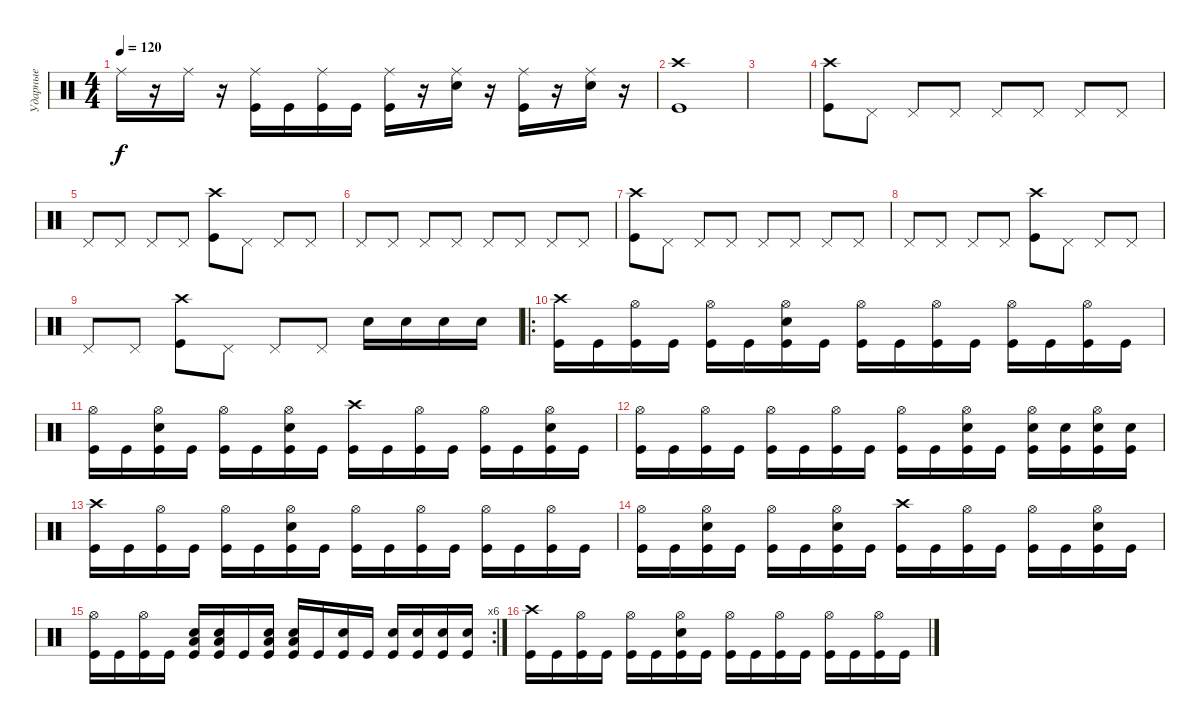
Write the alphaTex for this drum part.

\track ("Ударные" "Ударные") {instrument percussion}
\staff {score}
\articulation defaults
\ts (4 4)
\tempo 120
\clef neutral
\ks c "Ride (middle)".16{dy f}
r.16 "Ride (middle)".16 r.16 ("Ride (middle)" "Kick (hit)").16 "Kick (hit)".16 ("Ride (middle)" "Kick (hit)").16 "Kick (hit)".16 ("Ride (middle)" "Kick (hit)").16 r.16 ("Ride (middle)" "Snare (hit) 2").16 r.16 ("Ride (middle)" "Kick (hit)").16 r.16 ("Ride (middle)" "Snare (hit) 2").16 r.16 |
("Crash high (hit)" "Kick (hit)").1 |
|
("Crash high (hit)" "Kick (hit)").8 "Pedal Hi-Hat (hit)".8 "Pedal Hi-Hat (hit)".8 "Pedal Hi-Hat (hit)".8 "Pedal Hi-Hat (hit)".8 "Pedal Hi-Hat (hit)".8 "Pedal Hi-Hat (hit)".8 "Pedal Hi-Hat (hit)".8 |
"Pedal Hi-Hat (hit)".8 "Pedal Hi-Hat (hit)".8 "Pedal Hi-Hat (hit)".8 "Pedal Hi-Hat (hit)".8 ("Crash high (hit)" "Kick (hit)").8 "Pedal Hi-Hat (hit)".8 "Pedal Hi-Hat (hit)".8 "Pedal Hi-Hat (hit)".8 |
"Pedal Hi-Hat (hit)".8 "Pedal Hi-Hat (hit)".8 "Pedal Hi-Hat (hit)".8 "Pedal Hi-Hat (hit)".8 "Pedal Hi-Hat (hit)".8 "Pedal Hi-Hat (hit)".8 "Pedal Hi-Hat (hit)".8 "Pedal Hi-Hat (hit)".8 |
("Crash high (hit)" "Kick (hit)").8 "Pedal Hi-Hat (hit)".8 "Pedal Hi-Hat (hit)".8 "Pedal Hi-Hat (hit)".8 "Pedal Hi-Hat (hit)".8 "Pedal Hi-Hat (hit)".8 "Pedal Hi-Hat (hit)".8 "Pedal Hi-Hat (hit)".8 |
"Pedal Hi-Hat (hit)".8 "Pedal Hi-Hat (hit)".8 "Pedal Hi-Hat (hit)".8 "Pedal Hi-Hat (hit)".8 ("Crash high (hit)" "Kick (hit)").8 "Pedal Hi-Hat (hit)".8 "Pedal Hi-Hat (hit)".8 "Pedal Hi-Hat (hit)".8 |
"Pedal Hi-Hat (hit)".8 "Pedal Hi-Hat (hit)".8 ("Crash high (hit)" "Kick (hit)").8 "Pedal Hi-Hat (hit)".8 "Pedal Hi-Hat (hit)".8 "Pedal Hi-Hat (hit)".8 "Snare (hit) 2".16 "Snare (hit) 2".16 "Snare (hit) 2".16 "Snare (hit) 2".16 |
\ro
("Crash high (hit)" "Kick (hit)").16 "Kick (hit)".16 ("Hi-Hat (open)" "Kick (hit)").16 "Kick (hit)".16 ("Hi-Hat (open)" "Kick (hit)").16 "Kick (hit)".16 ("Hi-Hat (open)" "Snare (hit) 2" "Kick (hit)").16 "Kick (hit)".16 ("Hi-Hat (open)" "Kick (hit)").16 "Kick (hit)".16 ("Hi-Hat (open)" "Kick (hit)").16 "Kick (hit)".16 ("Hi-Hat (open)" "Kick (hit)").16 "Kick (hit)".16 ("Hi-Hat (open)" "Kick (hit)").16 "Kick (hit)".16 |
("Hi-Hat (open)" "Kick (hit)").16 "Kick (hit)".16 ("Hi-Hat (open)" "Snare (hit) 2" "Kick (hit)").16 "Kick (hit)".16 ("Hi-Hat (open)" "Kick (hit)").16 "Kick (hit)".16 ("Hi-Hat (open)" "Snare (hit) 2" "Kick (hit)").16 "Kick (hit)".16 ("Crash high (hit)" "Kick (hit)").16 "Kick (hit)".16 ("Hi-Hat (open)" "Kick (hit)").16 "Kick (hit)".16 ("Hi-Hat (open)" "Kick (hit)").16 "Kick (hit)".16 ("Hi-Hat (open)" "Snare (hit) 2" "Kick (hit)").16 "Kick (hit)".16 |
("Hi-Hat (open)" "Kick (hit)").16 "Kick (hit)".16 ("Hi-Hat (open)" "Kick (hit)").16 "Kick (hit)".16 ("Hi-Hat (open)" "Kick (hit)").16 "Kick (hit)".16 ("Hi-Hat (open)" "Kick (hit)").16 "Kick (hit)".16 ("Hi-Hat (open)" "Kick (hit)").16 "Kick (hit)".16 ("Hi-Hat (open)" "Snare (hit) 2" "Kick (hit)").16 "Kick (hit)".16 ("Hi-Hat (open)" "Snare (hit) 2" "Kick (hit)").16 ("Snare (hit) 2" "Kick (hit)").16 ("Hi-Hat (open)" "Snare (hit) 2" "Kick (hit)").16 ("Snare (hit) 2" "Kick (hit)").16 |
("Crash high (hit)" "Kick (hit)").16 "Kick (hit)".16 ("Hi-Hat (open)" "Kick (hit)").16 "Kick (hit)".16 ("Hi-Hat (open)" "Kick (hit)").16 "Kick (hit)".16 ("Hi-Hat (open)" "Snare (hit) 2" "Kick (hit)").16 "Kick (hit)".16 ("Hi-Hat (open)" "Kick (hit)").16 "Kick (hit)".16 ("Hi-Hat (open)" "Kick (hit)").16 "Kick (hit)".16 ("Hi-Hat (open)" "Kick (hit)").16 "Kick (hit)".16 ("Hi-Hat (open)" "Kick (hit)").16 "Kick (hit)".16 |
("Hi-Hat (open)" "Kick (hit)").16 "Kick (hit)".16 ("Hi-Hat (open)" "Snare (hit) 2" "Kick (hit)").16 "Kick (hit)".16 ("Hi-Hat (open)" "Kick (hit)").16 "Kick (hit)".16 ("Hi-Hat (open)" "Snare (hit) 2" "Kick (hit)").16 "Kick (hit)".16 ("Crash high (hit)" "Kick (hit)").16 "Kick (hit)".16 ("Hi-Hat (open)" "Kick (hit)").16 "Kick (hit)".16 ("Hi-Hat (open)" "Kick (hit)").16 "Kick (hit)".16 ("Hi-Hat (open)" "Snare (hit) 2" "Kick (hit)").16 "Kick (hit)".16 |
\rc 6
("Hi-Hat (open)" "Kick (hit)").16 "Kick (hit)".16 ("Hi-Hat (open)" "Kick (hit)").16 "Kick (hit)".16 ("Low Tom (hit)" "Snare (hit) 2" "Kick (hit)").16 ("Low Tom (hit)" "Snare (hit) 2" "Kick (hit)").16 "Kick (hit)".16 ("Low Tom (hit)" "Snare (hit) 2" "Kick (hit)").16 ("Low Tom (hit)" "Snare (hit) 2" "Kick (hit)").16 "Kick (hit)".16 ("Snare (hit) 2" "Kick (hit)").16 "Kick (hit)".16 ("Snare (hit) 2" "Kick (hit)").16 ("Snare (hit) 2" "Kick (hit)").16 ("Snare (hit) 2" "Kick (hit)").16 ("Snare (hit) 2" "Kick (hit)").16 |
("Crash high (hit)" "Kick (hit)").16 "Kick (hit)".16 ("Hi-Hat (open)" "Kick (hit)").16 "Kick (hit)".16 ("Hi-Hat (open)" "Kick (hit)").16 "Kick (hit)".16 ("Hi-Hat (open)" "Snare (hit) 2" "Kick (hit)").16 "Kick (hit)".16 ("Hi-Hat (open)" "Kick (hit)").16 "Kick (hit)".16 ("Hi-Hat (open)" "Kick (hit)").16 "Kick (hit)".16 ("Hi-Hat (open)" "Kick (hit)").16 "Kick (hit)".16 ("Hi-Hat (open)" "Kick (hit)").16 "Kick (hit)".16
